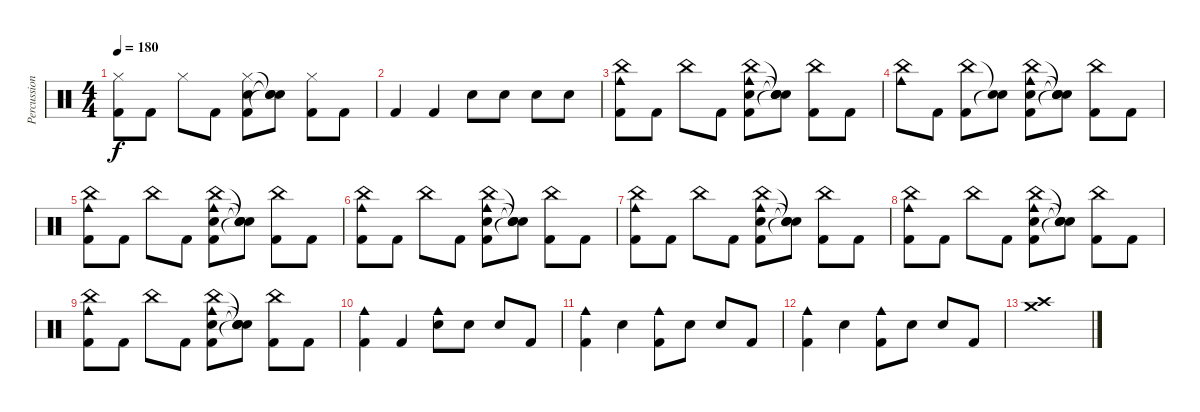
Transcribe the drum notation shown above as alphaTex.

\track ("Percussion" "Percussion") {instrument percussion}
\staff {score}
\articulation defaults
\ts (4 4)
\tempo 180
\clef neutral
\ks c
("Hi-Hat (closed)" "Kick (hit) 2").8{dy f} "Kick (hit) 2".8 "Hi-Hat (closed)".8 "Kick (hit) 2".8 ("Hi-Hat (closed)" "Snare (hit) 2" "Kick (hit) 2").8 ("Snare (hit)"{t} "Snare (hit)"{t} "Snare (hit)"{t}).8 ("Hi-Hat (closed)" "Kick (hit) 2").8 "Kick (hit) 2".8 |
"Kick (hit) 2".4 "Kick (hit) 2".4 "Snare (hit) 2".8 "Snare (hit) 2".8 "Snare (hit) 2".8 "Snare (hit) 2".8 |
("China (hit)" "Cowbell medium (hit)" "Kick (hit) 2").8 "Kick (hit) 2".8 "China (hit)".8 "Kick (hit) 2".8 ("China (hit)" "Cowbell medium (hit)" "Snare (hit) 2" "Kick (hit) 2").8 ("Snare (hit)"{t} "Snare (hit)"{t} "Snare (hit)"{t} "Snare (hit)"{t}).8 ("China (hit)" "Kick (hit) 2").8 "Kick (hit) 2".8 |
("China (hit)" "Cowbell medium (hit)").8 "Kick (hit) 2".8 ("China (hit)" "Kick (hit) 2").8 ("Snare (hit)"{t} "Snare (hit)"{t}).8 ("China (hit)" "Cowbell medium (hit)" "Snare (hit) 2" "Kick (hit) 2").8 ("Snare (hit)"{t} "Snare (hit)"{t} "Snare (hit)"{t} "Snare (hit)"{t}).8 ("China (hit)" "Kick (hit) 2").8 "Kick (hit) 2".8 |
("China (hit)" "Cowbell medium (hit)" "Kick (hit) 2").8 "Kick (hit) 2".8 "China (hit)".8 "Kick (hit) 2".8 ("China (hit)" "Cowbell medium (hit)" "Snare (hit) 2" "Kick (hit) 2").8 ("Snare (hit)"{t} "Snare (hit)"{t} "Snare (hit)"{t} "Snare (hit)"{t}).8 ("China (hit)" "Kick (hit) 2").8 "Kick (hit) 2".8 |
("China (hit)" "Cowbell medium (hit)" "Kick (hit) 2").8 "Kick (hit) 2".8 "China (hit)".8 "Kick (hit) 2".8 ("China (hit)" "Cowbell medium (hit)" "Snare (hit) 2" "Kick (hit) 2").8 ("Snare (hit)"{t} "Snare (hit)"{t} "Snare (hit)"{t} "Snare (hit)"{t}).8 ("China (hit)" "Kick (hit) 2").8 "Kick (hit) 2".8 |
("China (hit)" "Cowbell medium (hit)" "Kick (hit) 2").8 "Kick (hit) 2".8 "China (hit)".8 "Kick (hit) 2".8 ("China (hit)" "Cowbell medium (hit)" "Snare (hit) 2" "Kick (hit) 2").8 ("Snare (hit)"{t} "Snare (hit)"{t} "Snare (hit)"{t} "Snare (hit)"{t}).8 ("China (hit)" "Kick (hit) 2").8 "Kick (hit) 2".8 |
("China (hit)" "Cowbell medium (hit)" "Kick (hit) 2").8 "Kick (hit) 2".8 "China (hit)".8 "Kick (hit) 2".8 ("China (hit)" "Cowbell medium (hit)" "Snare (hit) 2" "Kick (hit) 2").8 ("Snare (hit)"{t} "Snare (hit)"{t} "Snare (hit)"{t} "Snare (hit)"{t}).8 ("China (hit)" "Kick (hit) 2").8 "Kick (hit) 2".8 |
("China (hit)" "Cowbell medium (hit)" "Kick (hit) 2").8 "Kick (hit) 2".8 "China (hit)".8 "Kick (hit) 2".8 ("China (hit)" "Cowbell medium (hit)" "Snare (hit) 2" "Kick (hit) 2").8 ("Snare (hit)"{t} "Snare (hit)"{t} "Snare (hit)"{t} "Snare (hit)"{t}).8 ("China (hit)" "Kick (hit) 2").8 "Kick (hit) 2".8 |
("Cowbell medium (hit)" "Kick (hit) 2").4 "Kick (hit) 2".4 ("Cowbell medium (hit)" "Snare (hit) 2").8 "Snare (hit) 2".8 "Snare (hit) 2".8 "Kick (hit) 2".8 |
("Cowbell medium (hit)" "Kick (hit) 2").4 "Snare (hit) 2".4 ("Cowbell medium (hit)" "Kick (hit) 2").8 "Snare (hit) 2".8 "Snare (hit) 2".8 "Kick (hit) 2".8 |
("Cowbell medium (hit)" "Kick (hit) 2").4 "Snare (hit) 2".4 ("Cowbell medium (hit)" "Kick (hit) 2").8 "Snare (hit) 2".8 "Snare (hit) 2".8 "Kick (hit) 2".8 |
("Crash high (hit)" "Crash medium (hit)").1
